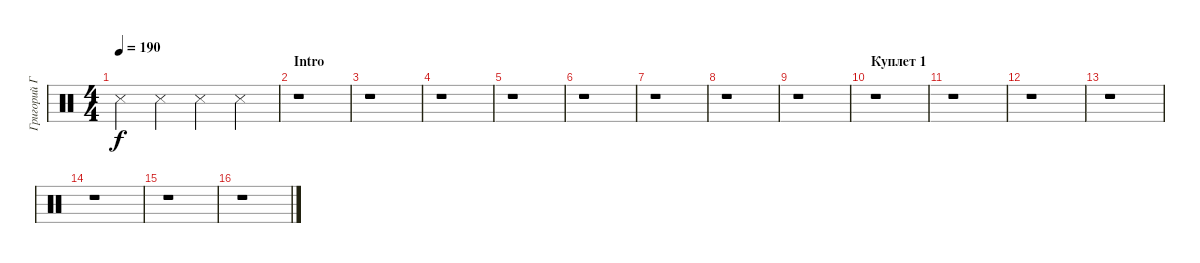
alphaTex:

\track ("Григорий Габерман" "Григорий Г") {instrument percussion}
\staff {score}
\articulation defaults
\ts (4 4)
\tempo 190
\clef neutral
\ks c "Snare (side stick) 3".4{dy f} "Snare (side stick) 3".4 "Snare (side stick) 3".4 "Snare (side stick) 3".4
|
\section ("" "Intro")
r.1 |
r.1 |
r.1 |
r.1 |
r.1 |
r.1 |
r.1 |
r.1 |
\section ("" "Куплет 1")
r.1 |
r.1 |
r.1 |
r.1 |
r.1 |
r.1 |
r.1
